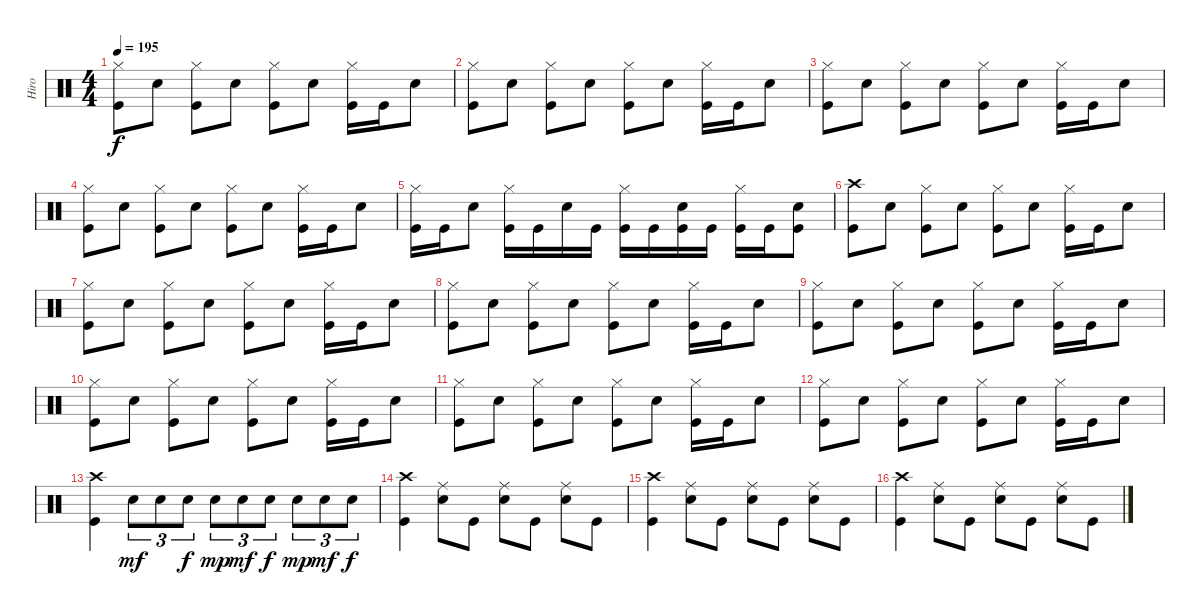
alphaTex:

\track ("Hiro" "Hiro") {instrument percussion}
\staff {score}
\articulation defaults
\ts (4 4)
\tempo 195
\clef neutral
\ks c
("Kick (hit)" "Hi-Hat (closed)").8{dy f} "Snare (hit) 2".8 ("Kick (hit)" "Hi-Hat (closed)").8 "Snare (hit) 2".8 ("Kick (hit)" "Hi-Hat (closed)").8 "Snare (hit) 2".8 ("Kick (hit)" "Hi-Hat (closed)").16 "Kick (hit)".16 "Snare (hit) 2".8 |
("Kick (hit)" "Hi-Hat (closed)").8 "Snare (hit) 2".8 ("Kick (hit)" "Hi-Hat (closed)").8 "Snare (hit) 2".8 ("Kick (hit)" "Hi-Hat (closed)").8 "Snare (hit) 2".8 ("Kick (hit)" "Hi-Hat (closed)").16 "Kick (hit)".16 "Snare (hit) 2".8 |
("Kick (hit)" "Hi-Hat (closed)").8 "Snare (hit) 2".8 ("Kick (hit)" "Hi-Hat (closed)").8 "Snare (hit) 2".8 ("Kick (hit)" "Hi-Hat (closed)").8 "Snare (hit) 2".8 ("Kick (hit)" "Hi-Hat (closed)").16 "Kick (hit)".16 "Snare (hit) 2".8 |
("Kick (hit)" "Hi-Hat (closed)").8 "Snare (hit) 2".8 ("Kick (hit)" "Hi-Hat (closed)").8 "Snare (hit) 2".8 ("Kick (hit)" "Hi-Hat (closed)").8 "Snare (hit) 2".8 ("Kick (hit)" "Hi-Hat (closed)").16 "Kick (hit)".16 "Snare (hit) 2".8 |
("Kick (hit)" "Hi-Hat (closed)").16 "Kick (hit)".16 "Snare (hit) 2".8 ("Kick (hit)" "Hi-Hat (closed)").16 "Kick (hit)".16 "Snare (hit) 2".16 "Kick (hit)".16 ("Kick (hit)" "Hi-Hat (closed)").16 "Kick (hit)".16 ("Snare (hit) 2" "Kick (hit)").16 "Kick (hit)".16 ("Kick (hit)" "Hi-Hat (closed)").16 "Kick (hit)".16 ("Snare (hit) 2" "Kick (hit)").8 |
("Kick (hit)" "Crash high (hit)").8 "Snare (hit) 2".8 ("Kick (hit)" "Hi-Hat (closed)").8 "Snare (hit) 2".8 ("Kick (hit)" "Hi-Hat (closed)").8 "Snare (hit) 2".8 ("Kick (hit)" "Hi-Hat (closed)").16 "Kick (hit)".16 "Snare (hit) 2".8 |
("Kick (hit)" "Hi-Hat (closed)").8 "Snare (hit) 2".8 ("Kick (hit)" "Hi-Hat (closed)").8 "Snare (hit) 2".8 ("Kick (hit)" "Hi-Hat (closed)").8 "Snare (hit) 2".8 ("Kick (hit)" "Hi-Hat (closed)").16 "Kick (hit)".16 "Snare (hit) 2".8 |
("Kick (hit)" "Hi-Hat (closed)").8 "Snare (hit) 2".8 ("Kick (hit)" "Hi-Hat (closed)").8 "Snare (hit) 2".8 ("Kick (hit)" "Hi-Hat (closed)").8 "Snare (hit) 2".8 ("Kick (hit)" "Hi-Hat (closed)").16 "Kick (hit)".16 "Snare (hit) 2".8 |
("Kick (hit)" "Hi-Hat (closed)").8 "Snare (hit) 2".8 ("Kick (hit)" "Hi-Hat (closed)").8 "Snare (hit) 2".8 ("Kick (hit)" "Hi-Hat (closed)").8 "Snare (hit) 2".8 ("Kick (hit)" "Hi-Hat (closed)").16 "Kick (hit)".16 "Snare (hit) 2".8 |
("Kick (hit)" "Hi-Hat (closed)").8 "Snare (hit) 2".8 ("Kick (hit)" "Hi-Hat (closed)").8 "Snare (hit) 2".8 ("Kick (hit)" "Hi-Hat (closed)").8 "Snare (hit) 2".8 ("Kick (hit)" "Hi-Hat (closed)").16 "Kick (hit)".16 "Snare (hit) 2".8 |
("Kick (hit)" "Hi-Hat (closed)").8 "Snare (hit) 2".8 ("Kick (hit)" "Hi-Hat (closed)").8 "Snare (hit) 2".8 ("Kick (hit)" "Hi-Hat (closed)").8 "Snare (hit) 2".8 ("Kick (hit)" "Hi-Hat (closed)").16 "Kick (hit)".16 "Snare (hit) 2".8 |
("Kick (hit)" "Hi-Hat (closed)").8 "Snare (hit) 2".8 ("Kick (hit)" "Hi-Hat (closed)").8 "Snare (hit) 2".8 ("Kick (hit)" "Hi-Hat (closed)").8 "Snare (hit) 2".8 ("Kick (hit)" "Hi-Hat (closed)").16 "Kick (hit)".16 "Snare (hit) 2".8 |
("Crash high (hit)" "Kick (hit)").4 "Snare (hit) 2".8{tu (3 2) dy mf} "Snare (hit) 2".8{tu (3 2)} "Snare (hit) 2".8{tu (3 2) dy f} "Snare (hit) 2".8{tu (3 2) dy mp} "Snare (hit) 2".8{tu (3 2) dy mf} "Snare (hit) 2".8{tu (3 2) dy f} "Snare (hit) 2".8{tu (3 2) dy mp} "Snare (hit) 2".8{tu (3 2) dy mf} "Snare (hit) 2".8{tu (3 2) dy f} |
("Crash high (hit)" "Kick (hit)").4 ("Snare (hit) 2" "Ride (middle)").8 "Kick (hit)".8 ("Snare (hit) 2" "Ride (middle)").8 "Kick (hit)".8 ("Snare (hit) 2" "Ride (middle)").8 "Kick (hit)".8 |
("Kick (hit)" "Crash high (hit)").4 ("Ride (middle)" "Snare (hit) 2").8 "Kick (hit)".8 ("Ride (middle)" "Snare (hit) 2").8 "Kick (hit)".8 ("Ride (middle)" "Snare (hit) 2").8 "Kick (hit)".8 |
("Kick (hit)" "Crash high (hit)").4 ("Ride (middle)" "Snare (hit) 2").8 "Kick (hit)".8 ("Ride (middle)" "Snare (hit) 2").8 "Kick (hit)".8 ("Ride (middle)" "Snare (hit) 2").8 "Kick (hit)".8
